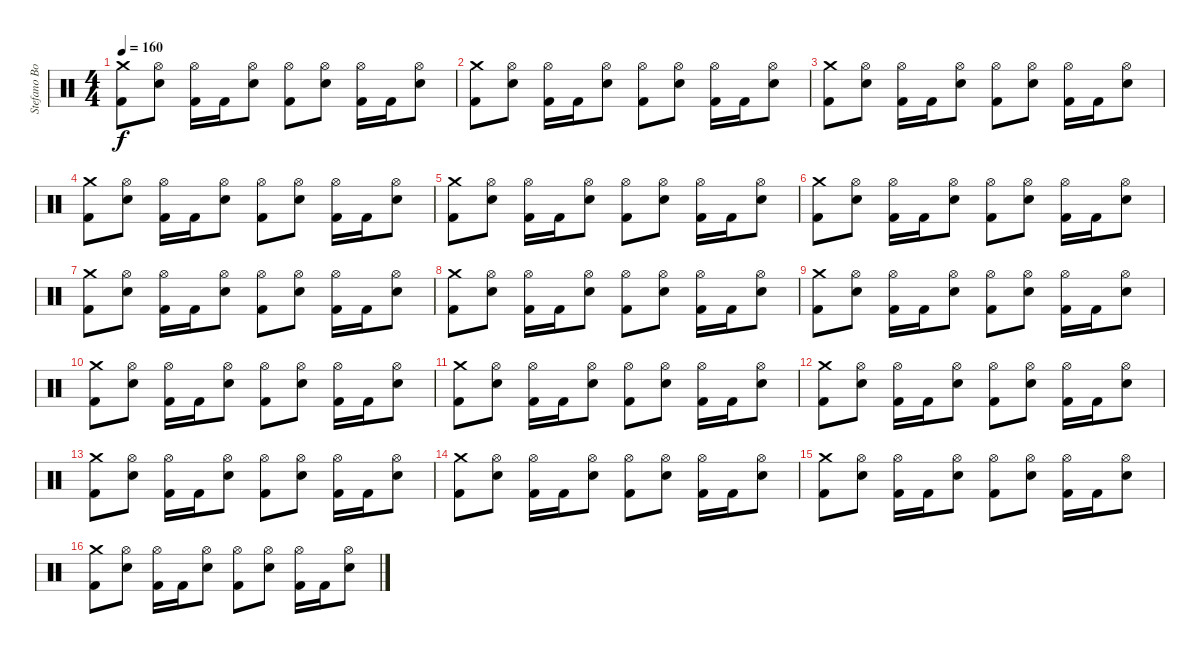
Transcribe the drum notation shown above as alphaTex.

\track ("Stefano Bonini" "Stefano Bo") {instrument percussion}
\staff {score}
\articulation defaults
\ts (4 4)
\tempo 160
\clef neutral
\ks c
("Crash medium (hit)" "Kick (hit) 2").8{dy f} ("Hi-Hat (open)" "Snare (hit) 2").8 ("Hi-Hat (open)" "Kick (hit) 2").16 "Kick (hit) 2".16 ("Hi-Hat (open)" "Snare (hit) 2").8 ("Hi-Hat (open)" "Kick (hit) 2").8 ("Hi-Hat (open)" "Snare (hit) 2").8 ("Hi-Hat (open)" "Kick (hit) 2").16 "Kick (hit) 2".16 ("Hi-Hat (open)" "Snare (hit) 2").8 |
("Crash medium (hit)" "Kick (hit) 2").8 ("Hi-Hat (open)" "Snare (hit) 2").8 ("Hi-Hat (open)" "Kick (hit) 2").16 "Kick (hit) 2".16 ("Hi-Hat (open)" "Snare (hit) 2").8 ("Hi-Hat (open)" "Kick (hit) 2").8 ("Hi-Hat (open)" "Snare (hit) 2").8 ("Hi-Hat (open)" "Kick (hit) 2").16 "Kick (hit) 2".16 ("Hi-Hat (open)" "Snare (hit) 2").8 |
("Crash medium (hit)" "Kick (hit) 2").8 ("Hi-Hat (open)" "Snare (hit) 2").8 ("Hi-Hat (open)" "Kick (hit) 2").16 "Kick (hit) 2".16 ("Hi-Hat (open)" "Snare (hit) 2").8 ("Hi-Hat (open)" "Kick (hit) 2").8 ("Hi-Hat (open)" "Snare (hit) 2").8 ("Hi-Hat (open)" "Kick (hit) 2").16 "Kick (hit) 2".16 ("Hi-Hat (open)" "Snare (hit) 2").8 |
("Crash medium (hit)" "Kick (hit) 2").8 ("Hi-Hat (open)" "Snare (hit) 2").8 ("Hi-Hat (open)" "Kick (hit) 2").16 "Kick (hit) 2".16 ("Hi-Hat (open)" "Snare (hit) 2").8 ("Hi-Hat (open)" "Kick (hit) 2").8 ("Hi-Hat (open)" "Snare (hit) 2").8 ("Hi-Hat (open)" "Kick (hit) 2").16 "Kick (hit) 2".16 ("Hi-Hat (open)" "Snare (hit) 2").8 |
("Crash medium (hit)" "Kick (hit) 2").8 ("Hi-Hat (open)" "Snare (hit) 2").8 ("Hi-Hat (open)" "Kick (hit) 2").16 "Kick (hit) 2".16 ("Hi-Hat (open)" "Snare (hit) 2").8 ("Hi-Hat (open)" "Kick (hit) 2").8 ("Hi-Hat (open)" "Snare (hit) 2").8 ("Hi-Hat (open)" "Kick (hit) 2").16 "Kick (hit) 2".16 ("Hi-Hat (open)" "Snare (hit) 2").8 |
("Crash medium (hit)" "Kick (hit) 2").8 ("Hi-Hat (open)" "Snare (hit) 2").8 ("Hi-Hat (open)" "Kick (hit) 2").16 "Kick (hit) 2".16 ("Hi-Hat (open)" "Snare (hit) 2").8 ("Hi-Hat (open)" "Kick (hit) 2").8 ("Hi-Hat (open)" "Snare (hit) 2").8 ("Hi-Hat (open)" "Kick (hit) 2").16 "Kick (hit) 2".16 ("Hi-Hat (open)" "Snare (hit) 2").8 |
("Crash medium (hit)" "Kick (hit) 2").8 ("Hi-Hat (open)" "Snare (hit) 2").8 ("Hi-Hat (open)" "Kick (hit) 2").16 "Kick (hit) 2".16 ("Hi-Hat (open)" "Snare (hit) 2").8 ("Hi-Hat (open)" "Kick (hit) 2").8 ("Hi-Hat (open)" "Snare (hit) 2").8 ("Hi-Hat (open)" "Kick (hit) 2").16 "Kick (hit) 2".16 ("Hi-Hat (open)" "Snare (hit) 2").8 |
("Crash medium (hit)" "Kick (hit) 2").8 ("Hi-Hat (open)" "Snare (hit) 2").8 ("Hi-Hat (open)" "Kick (hit) 2").16 "Kick (hit) 2".16 ("Hi-Hat (open)" "Snare (hit) 2").8 ("Hi-Hat (open)" "Kick (hit) 2").8 ("Hi-Hat (open)" "Snare (hit) 2").8 ("Hi-Hat (open)" "Kick (hit) 2").16 "Kick (hit) 2".16 ("Hi-Hat (open)" "Snare (hit) 2").8 |
("Crash medium (hit)" "Kick (hit) 2").8 ("Hi-Hat (open)" "Snare (hit) 2").8 ("Hi-Hat (open)" "Kick (hit) 2").16 "Kick (hit) 2".16 ("Hi-Hat (open)" "Snare (hit) 2").8 ("Hi-Hat (open)" "Kick (hit) 2").8 ("Hi-Hat (open)" "Snare (hit) 2").8 ("Hi-Hat (open)" "Kick (hit) 2").16 "Kick (hit) 2".16 ("Hi-Hat (open)" "Snare (hit) 2").8 |
("Crash medium (hit)" "Kick (hit) 2").8 ("Hi-Hat (open)" "Snare (hit) 2").8 ("Hi-Hat (open)" "Kick (hit) 2").16 "Kick (hit) 2".16 ("Hi-Hat (open)" "Snare (hit) 2").8 ("Hi-Hat (open)" "Kick (hit) 2").8 ("Hi-Hat (open)" "Snare (hit) 2").8 ("Hi-Hat (open)" "Kick (hit) 2").16 "Kick (hit) 2".16 ("Hi-Hat (open)" "Snare (hit) 2").8 |
("Crash medium (hit)" "Kick (hit) 2").8 ("Hi-Hat (open)" "Snare (hit) 2").8 ("Hi-Hat (open)" "Kick (hit) 2").16 "Kick (hit) 2".16 ("Hi-Hat (open)" "Snare (hit) 2").8 ("Hi-Hat (open)" "Kick (hit) 2").8 ("Hi-Hat (open)" "Snare (hit) 2").8 ("Hi-Hat (open)" "Kick (hit) 2").16 "Kick (hit) 2".16 ("Hi-Hat (open)" "Snare (hit) 2").8 |
("Crash medium (hit)" "Kick (hit) 2").8 ("Hi-Hat (open)" "Snare (hit) 2").8 ("Hi-Hat (open)" "Kick (hit) 2").16 "Kick (hit) 2".16 ("Hi-Hat (open)" "Snare (hit) 2").8 ("Hi-Hat (open)" "Kick (hit) 2").8 ("Hi-Hat (open)" "Snare (hit) 2").8 ("Hi-Hat (open)" "Kick (hit) 2").16 "Kick (hit) 2".16 ("Hi-Hat (open)" "Snare (hit) 2").8 |
("Crash medium (hit)" "Kick (hit) 2").8 ("Hi-Hat (open)" "Snare (hit) 2").8 ("Hi-Hat (open)" "Kick (hit) 2").16 "Kick (hit) 2".16 ("Hi-Hat (open)" "Snare (hit) 2").8 ("Hi-Hat (open)" "Kick (hit) 2").8 ("Hi-Hat (open)" "Snare (hit) 2").8 ("Hi-Hat (open)" "Kick (hit) 2").16 "Kick (hit) 2".16 ("Hi-Hat (open)" "Snare (hit) 2").8 |
("Crash medium (hit)" "Kick (hit) 2").8 ("Hi-Hat (open)" "Snare (hit) 2").8 ("Hi-Hat (open)" "Kick (hit) 2").16 "Kick (hit) 2".16 ("Hi-Hat (open)" "Snare (hit) 2").8 ("Hi-Hat (open)" "Kick (hit) 2").8 ("Hi-Hat (open)" "Snare (hit) 2").8 ("Hi-Hat (open)" "Kick (hit) 2").16 "Kick (hit) 2".16 ("Hi-Hat (open)" "Snare (hit) 2").8 |
("Crash medium (hit)" "Kick (hit) 2").8 ("Hi-Hat (open)" "Snare (hit) 2").8 ("Hi-Hat (open)" "Kick (hit) 2").16 "Kick (hit) 2".16 ("Hi-Hat (open)" "Snare (hit) 2").8 ("Hi-Hat (open)" "Kick (hit) 2").8 ("Hi-Hat (open)" "Snare (hit) 2").8 ("Hi-Hat (open)" "Kick (hit) 2").16 "Kick (hit) 2".16 ("Hi-Hat (open)" "Snare (hit) 2").8 |
("Crash medium (hit)" "Kick (hit) 2").8 ("Hi-Hat (open)" "Snare (hit) 2").8 ("Hi-Hat (open)" "Kick (hit) 2").16 "Kick (hit) 2".16 ("Hi-Hat (open)" "Snare (hit) 2").8 ("Hi-Hat (open)" "Kick (hit) 2").8 ("Hi-Hat (open)" "Snare (hit) 2").8 ("Hi-Hat (open)" "Kick (hit) 2").16 "Kick (hit) 2".16 ("Hi-Hat (open)" "Snare (hit) 2").8
